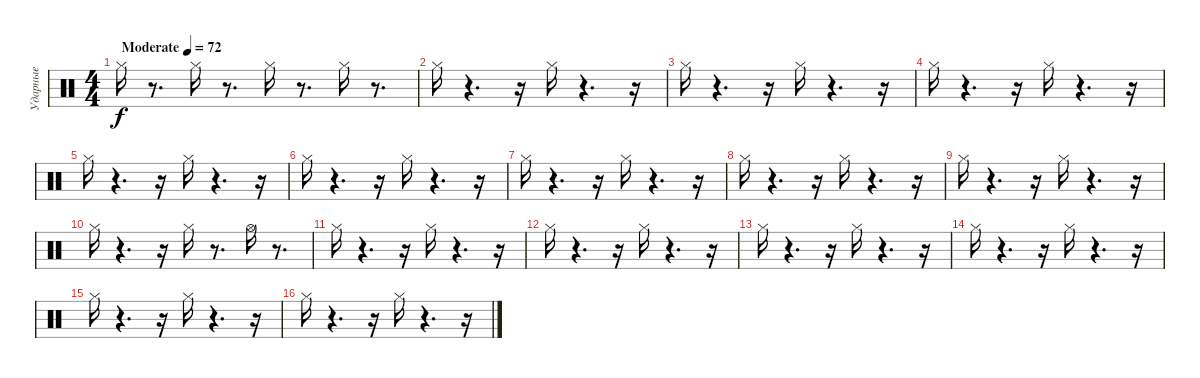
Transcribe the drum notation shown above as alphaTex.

\track ("Ударные" "Ударные") {instrument percussion}
\staff {score}
\articulation defaults
\ts (4 4)
\tempo (72 "Moderate")
\clef neutral
\ks c "Hi-Hat (closed)".16{dy f}
r.8{d} "Hi-Hat (closed)".16 r.8{d} "Hi-Hat (closed)".16 r.8{d} "Hi-Hat (closed)".16 r.8{d} |
"Hi-Hat (closed)".16 r.4{d} r.16 "Hi-Hat (closed)".16 r.4{d} r.16 |
"Hi-Hat (closed)".16 r.4{d} r.16 "Hi-Hat (closed)".16 r.4{d} r.16 |
"Hi-Hat (closed)".16 r.4{d} r.16 "Hi-Hat (closed)".16 r.4{d} r.16 |
"Hi-Hat (closed)".16 r.4{d} r.16 "Hi-Hat (closed)".16 r.4{d} r.16 |
"Hi-Hat (closed)".16 r.4{d} r.16 "Hi-Hat (closed)".16 r.4{d} r.16 |
"Hi-Hat (closed)".16 r.4{d} r.16 "Hi-Hat (closed)".16 r.4{d} r.16 |
"Hi-Hat (closed)".16 r.4{d} r.16 "Hi-Hat (closed)".16 r.4{d} r.16 |
"Hi-Hat (closed)".16 r.4{d} r.16 "Hi-Hat (closed)".16 r.4{d} r.16 |
"Hi-Hat (closed)".16 r.4{d} r.16 "Hi-Hat (closed)".16 r.8{d} "Hi-Hat (open)".16 r.8{d} |
"Hi-Hat (closed)".16 r.4{d} r.16 "Hi-Hat (closed)".16 r.4{d} r.16 |
"Hi-Hat (closed)".16 r.4{d} r.16 "Hi-Hat (closed)".16 r.4{d} r.16 |
"Hi-Hat (closed)".16 r.4{d} r.16 "Hi-Hat (closed)".16 r.4{d} r.16 |
"Hi-Hat (closed)".16 r.4{d} r.16 "Hi-Hat (closed)".16 r.4{d} r.16 |
"Hi-Hat (closed)".16 r.4{d} r.16 "Hi-Hat (closed)".16 r.4{d} r.16 |
"Hi-Hat (closed)".16 r.4{d} r.16 "Hi-Hat (closed)".16 r.4{d} r.16
